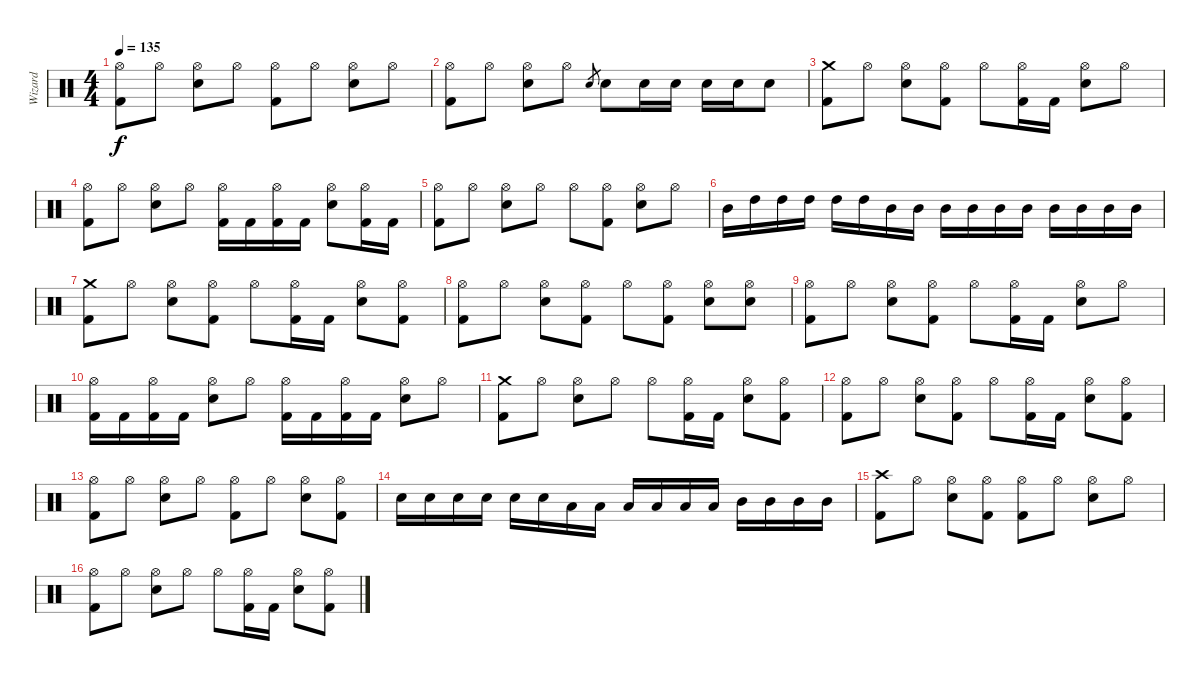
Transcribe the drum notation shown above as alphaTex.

\track ("Wizard" "Wizard") {instrument percussion}
\staff {score}
\articulation defaults
\ts (4 4)
\tempo 135
\clef neutral
\ks c
("Hi-Hat (open)" "Kick (hit) 2").8{dy f} "Hi-Hat (open)".8 ("Hi-Hat (open)" "Snare (hit) 2").8 "Hi-Hat (open)".8 ("Hi-Hat (open)" "Kick (hit) 2").8 "Hi-Hat (open)".8 ("Hi-Hat (open)" "Snare (hit) 2").8 "Hi-Hat (open)".8 |
("Hi-Hat (open)" "Kick (hit) 2").8 "Hi-Hat (open)".8 ("Hi-Hat (open)" "Snare (hit) 2").8 "Hi-Hat (open)".8 "Snare (hit) 2".8{gr} "Snare (hit) 2".8 "Snare (hit) 2".16 "Snare (hit) 2".16 "Snare (hit) 2".16 "Snare (hit) 2".16 "Snare (hit) 2".8 |
("Crash medium (hit)" "Kick (hit) 2").8 "Hi-Hat (open)".8 ("Hi-Hat (open)" "Snare (hit) 2").8 ("Hi-Hat (open)" "Kick (hit) 2").8 "Hi-Hat (open)".8 ("Hi-Hat (open)" "Kick (hit) 2").16 "Kick (hit) 2".16 ("Hi-Hat (open)" "Snare (hit) 2").8 "Hi-Hat (open)".8 |
("Hi-Hat (open)" "Kick (hit) 2").8 "Hi-Hat (open)".8 ("Hi-Hat (open)" "Snare (hit) 2").8 "Hi-Hat (open)".8 ("Hi-Hat (open)" "Kick (hit) 2").16 "Kick (hit) 2".16 ("Hi-Hat (open)" "Kick (hit) 2").16 "Kick (hit) 2".16 ("Hi-Hat (open)" "Snare (hit) 2").8 ("Hi-Hat (open)" "Kick (hit) 2").16 "Kick (hit) 2".16 |
("Hi-Hat (open)" "Kick (hit) 2").8 "Hi-Hat (open)".8 ("Hi-Hat (open)" "Snare (hit) 2").8 "Hi-Hat (open)".8 "Hi-Hat (open)".8 ("Hi-Hat (open)" "Kick (hit) 2").8 ("Hi-Hat (open)" "Snare (hit) 2").8 "Hi-Hat (open)".8 |
"Mid Tom (hit)".16 "High Tom (hit)".16 "High Tom (hit)".16 "High Tom (hit)".16 "High Tom (hit)".16 "High Tom (hit)".16 "Mid Tom (hit)".16 "Mid Tom (hit)".16 "Mid Tom (hit)".16 "Mid Tom (hit)".16 "Mid Tom (hit)".16 "Mid Tom (hit)".16 "Mid Tom (hit)".16 "Mid Tom (hit)".16 "Mid Tom (hit)".16 "Mid Tom (hit)".16 |
("Crash medium (hit)" "Kick (hit) 2").8 "Hi-Hat (open)".8 ("Hi-Hat (open)" "Snare (hit) 2").8 ("Hi-Hat (open)" "Kick (hit) 2").8 "Hi-Hat (open)".8 ("Hi-Hat (open)" "Kick (hit) 2").16 "Kick (hit) 2".16 ("Hi-Hat (open)" "Snare (hit) 2").8 ("Hi-Hat (open)" "Kick (hit) 2").8 |
("Hi-Hat (open)" "Kick (hit) 2").8 "Hi-Hat (open)".8 ("Hi-Hat (open)" "Snare (hit) 2").8 ("Hi-Hat (open)" "Kick (hit) 2").8 "Hi-Hat (open)".8 ("Hi-Hat (open)" "Kick (hit) 2").8 ("Hi-Hat (open)" "Snare (hit) 2").8 ("Hi-Hat (open)" "Snare (hit) 2").8 |
("Hi-Hat (open)" "Kick (hit) 2").8 "Hi-Hat (open)".8 ("Hi-Hat (open)" "Snare (hit) 2").8 ("Hi-Hat (open)" "Kick (hit) 2").8 "Hi-Hat (open)".8 ("Hi-Hat (open)" "Kick (hit) 2").16 "Kick (hit) 2".16 ("Hi-Hat (open)" "Snare (hit) 2").8 "Hi-Hat (open)".8 |
("Hi-Hat (open)" "Kick (hit) 2").16 "Kick (hit) 2".16 ("Hi-Hat (open)" "Kick (hit) 2").16 "Kick (hit) 2".16 ("Hi-Hat (open)" "Snare (hit) 2").8 "Hi-Hat (open)".8 ("Hi-Hat (open)" "Kick (hit) 2").16 "Kick (hit) 2".16 ("Hi-Hat (open)" "Kick (hit) 2").16 "Kick (hit) 2".16 ("Hi-Hat (open)" "Snare (hit) 2").8 "Hi-Hat (open)".8 |
("Crash medium (hit)" "Kick (hit) 2").8 "Hi-Hat (open)".8 ("Hi-Hat (open)" "Snare (hit) 2").8 "Hi-Hat (open)".8 "Hi-Hat (open)".8 ("Hi-Hat (open)" "Kick (hit) 2").16 "Kick (hit) 2".16 ("Hi-Hat (open)" "Snare (hit) 2").8 ("Hi-Hat (open)" "Kick (hit) 2").8 |
("Hi-Hat (open)" "Kick (hit) 2").8 "Hi-Hat (open)".8 ("Hi-Hat (open)" "Snare (hit) 2").8 ("Hi-Hat (open)" "Kick (hit) 2").8 "Hi-Hat (open)".8 ("Hi-Hat (open)" "Kick (hit) 2").16 "Kick (hit) 2".16 ("Hi-Hat (open)" "Snare (hit) 2").8 ("Hi-Hat (open)" "Kick (hit) 2").8 |
("Hi-Hat (open)" "Kick (hit) 2").8 "Hi-Hat (open)".8 ("Hi-Hat (open)" "Snare (hit) 2").8 "Hi-Hat (open)".8 ("Hi-Hat (open)" "Kick (hit) 2").8 "Hi-Hat (open)".8 ("Hi-Hat (open)" "Snare (hit) 2").8 ("Hi-Hat (open)" "Kick (hit) 2").8 |
"Snare (hit) 2".16 "Snare (hit) 2".16 "Snare (hit) 2".16 "Snare (hit) 2".16 "Snare (hit) 2".16 "Snare (hit) 2".16 "Low Tom (hit)".16 "Low Tom (hit)".16 "Low Tom (hit)".16 "Low Tom (hit)".16 "Low Tom (hit)".16 "Low Tom (hit)".16 "Mid Tom (hit)".16 "Mid Tom (hit)".16 "Mid Tom (hit)".16 "Mid Tom (hit)".16 |
("Crash high (hit)" "Kick (hit) 2").8 "Hi-Hat (open)".8 ("Hi-Hat (open)" "Snare (hit) 2").8 ("Hi-Hat (open)" "Kick (hit) 2").8 ("Hi-Hat (open)" "Kick (hit) 2").8 "Hi-Hat (open)".8 ("Hi-Hat (open)" "Snare (hit) 2").8 "Hi-Hat (open)".8 |
("Hi-Hat (open)" "Kick (hit) 2").8 "Hi-Hat (open)".8 ("Hi-Hat (open)" "Snare (hit) 2").8 "Hi-Hat (open)".8 "Hi-Hat (open)".8 ("Hi-Hat (open)" "Kick (hit) 2").16 "Kick (hit) 2".16 ("Hi-Hat (open)" "Snare (hit) 2").8 ("Hi-Hat (open)" "Kick (hit) 2").8
